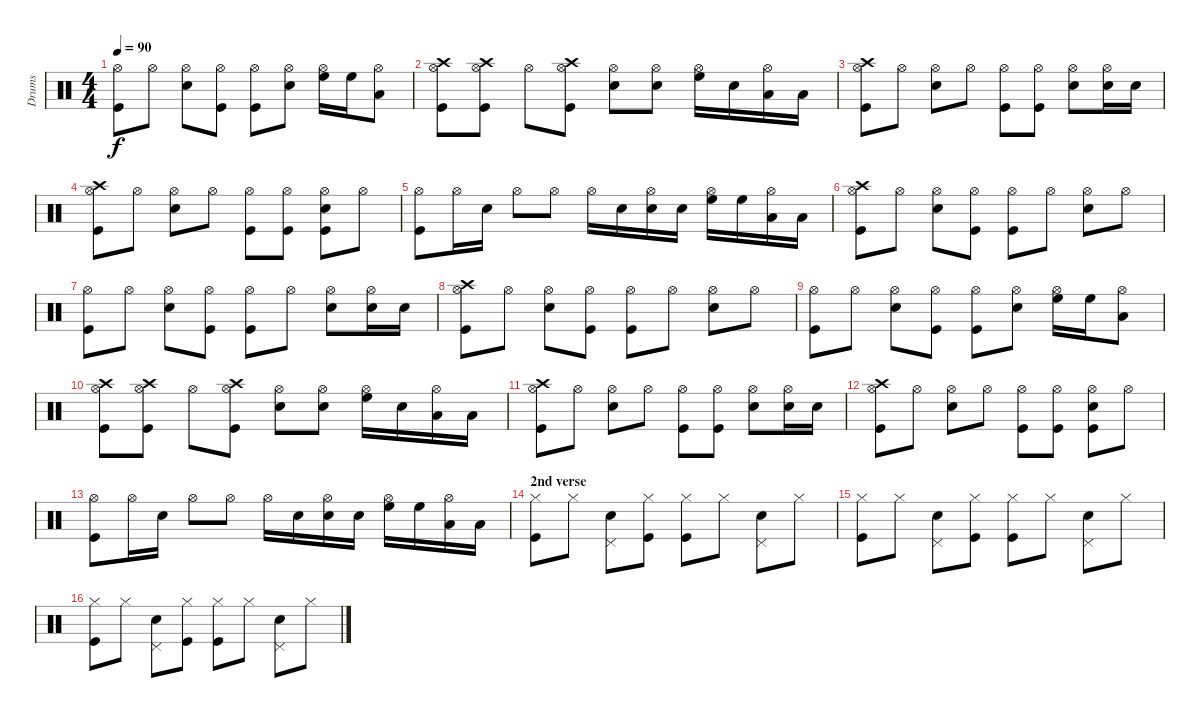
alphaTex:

\track ("Drums" "Drums") {instrument percussion}
\staff {score}
\articulation defaults
\ts (4 4)
\tempo 90
\clef neutral
\ks c
("Hi-Hat (open)" "Kick (hit)").8{dy f} "Hi-Hat (open)".8 ("Hi-Hat (open)" "Snare (hit) 2").8 ("Hi-Hat (open)" "Kick (hit)").8 ("Hi-Hat (open)" "Kick (hit)").8 ("Hi-Hat (open)" "Snare (hit) 2").8 ("Hi-Hat (open)" "High Floor Tom (hit)").16 "High Floor Tom (hit)".16 ("Hi-Hat (open)" "Low Tom (hit)").8 |
("Hi-Hat (open)" "Crash high (hit)" "Kick (hit)").8 ("Hi-Hat (open)" "Crash high (hit)" "Kick (hit)").8 "Hi-Hat (open)".8 ("Hi-Hat (open)" "Crash high (hit)" "Kick (hit)").8 ("Hi-Hat (open)" "Snare (hit) 2").8 ("Hi-Hat (open)" "Snare (hit) 2").8 ("Hi-Hat (open)" "High Floor Tom (hit)").16 "Snare (hit) 2".16 ("Hi-Hat (open)" "Low Tom (hit)").16 "Low Tom (hit)".16 |
("Hi-Hat (open)" "Crash high (hit)" "Kick (hit)").8 "Hi-Hat (open)".8 ("Hi-Hat (open)" "Snare (hit) 2").8 "Hi-Hat (open)".8 ("Hi-Hat (open)" "Kick (hit)").8 ("Hi-Hat (open)" "Kick (hit)").8 ("Hi-Hat (open)" "Snare (hit) 2").8 ("Hi-Hat (open)" "Snare (hit) 2").16 "Snare (hit) 2".16 |
("Hi-Hat (open)" "Crash high (hit)" "Kick (hit)").8 "Hi-Hat (open)".8 ("Hi-Hat (open)" "Snare (hit) 2").8 "Hi-Hat (open)".8 ("Hi-Hat (open)" "Kick (hit)").8 ("Hi-Hat (open)" "Kick (hit)").8 ("Hi-Hat (open)" "Snare (hit) 2" "Kick (hit)").8 "Hi-Hat (open)".8 |
("Hi-Hat (open)" "Kick (hit)").8 "Hi-Hat (open)".16 "Snare (hit) 2".16 "Hi-Hat (open)".8 "Hi-Hat (open)".8 "Hi-Hat (open)".16 "Snare (hit) 2".16 ("Hi-Hat (open)" "Snare (hit) 2").16 "Snare (hit) 2".16 ("Hi-Hat (open)" "High Floor Tom (hit)").16 "High Floor Tom (hit)".16 ("Hi-Hat (open)" "Low Tom (hit)").16 "Low Tom (hit)".16 |
("Hi-Hat (open)" "Crash high (hit)" "Kick (hit)").8 "Hi-Hat (open)".8 ("Hi-Hat (open)" "Snare (hit) 2").8 ("Hi-Hat (open)" "Kick (hit)").8 ("Hi-Hat (open)" "Kick (hit)").8 "Hi-Hat (open)".8 ("Hi-Hat (open)" "Snare (hit) 2").8 "Hi-Hat (open)".8 |
("Hi-Hat (open)" "Kick (hit)").8 "Hi-Hat (open)".8 ("Hi-Hat (open)" "Snare (hit) 2").8 ("Hi-Hat (open)" "Kick (hit)").8 ("Hi-Hat (open)" "Kick (hit)").8 "Hi-Hat (open)".8 ("Hi-Hat (open)" "Snare (hit) 2").8 ("Hi-Hat (open)" "Snare (hit) 2").16 "Snare (hit) 2".16 |
("Hi-Hat (open)" "Crash high (hit)" "Kick (hit)").8 "Hi-Hat (open)".8 ("Hi-Hat (open)" "Snare (hit) 2").8 ("Hi-Hat (open)" "Kick (hit)").8 ("Hi-Hat (open)" "Kick (hit)").8 "Hi-Hat (open)".8 ("Hi-Hat (open)" "Snare (hit) 2").8 "Hi-Hat (open)".8 |
("Hi-Hat (open)" "Kick (hit)").8 "Hi-Hat (open)".8 ("Hi-Hat (open)" "Snare (hit) 2").8 ("Hi-Hat (open)" "Kick (hit)").8 ("Hi-Hat (open)" "Kick (hit)").8 ("Hi-Hat (open)" "Snare (hit) 2").8 ("Hi-Hat (open)" "High Floor Tom (hit)").16 "High Floor Tom (hit)".16 ("Hi-Hat (open)" "Low Tom (hit)").8 |
("Hi-Hat (open)" "Crash high (hit)" "Kick (hit)").8 ("Hi-Hat (open)" "Crash high (hit)" "Kick (hit)").8 "Hi-Hat (open)".8 ("Hi-Hat (open)" "Crash high (hit)" "Kick (hit)").8 ("Hi-Hat (open)" "Snare (hit) 2").8 ("Hi-Hat (open)" "Snare (hit) 2").8 ("Hi-Hat (open)" "High Floor Tom (hit)").16 "Snare (hit) 2".16 ("Hi-Hat (open)" "Low Tom (hit)").16 "Low Tom (hit)".16 |
("Hi-Hat (open)" "Crash high (hit)" "Kick (hit)").8 "Hi-Hat (open)".8 ("Hi-Hat (open)" "Snare (hit) 2").8 "Hi-Hat (open)".8 ("Hi-Hat (open)" "Kick (hit)").8 ("Hi-Hat (open)" "Kick (hit)").8 ("Hi-Hat (open)" "Snare (hit) 2").8 ("Hi-Hat (open)" "Snare (hit) 2").16 "Snare (hit) 2".16 |
("Hi-Hat (open)" "Crash high (hit)" "Kick (hit)").8 "Hi-Hat (open)".8 ("Hi-Hat (open)" "Snare (hit) 2").8 "Hi-Hat (open)".8 ("Hi-Hat (open)" "Kick (hit)").8 ("Hi-Hat (open)" "Kick (hit)").8 ("Hi-Hat (open)" "Snare (hit) 2" "Kick (hit)").8 "Hi-Hat (open)".8 |
("Hi-Hat (open)" "Kick (hit)").8 "Hi-Hat (open)".16 "Snare (hit) 2".16 "Hi-Hat (open)".8 "Hi-Hat (open)".8 "Hi-Hat (open)".16 "Snare (hit) 2".16 ("Hi-Hat (open)" "Snare (hit) 2").16 "Snare (hit) 2".16 ("Hi-Hat (open)" "High Floor Tom (hit)").16 "High Floor Tom (hit)".16 ("Hi-Hat (open)" "Low Tom (hit)").16 "Low Tom (hit)".16 |
\section ("" "2nd verse")
("Hi-Hat (closed)" "Kick (hit)").8 "Hi-Hat (closed)".8 ("Pedal Hi-Hat (hit)" "Snare (hit) 2").8 ("Hi-Hat (closed)" "Kick (hit)").8 ("Hi-Hat (closed)" "Kick (hit)").8 "Hi-Hat (closed)".8 ("Pedal Hi-Hat (hit)" "Snare (hit) 2").8 "Hi-Hat (closed)".8 |
("Hi-Hat (closed)" "Kick (hit)").8 "Hi-Hat (closed)".8 ("Pedal Hi-Hat (hit)" "Snare (hit) 2").8 ("Hi-Hat (closed)" "Kick (hit)").8 ("Hi-Hat (closed)" "Kick (hit)").8 "Hi-Hat (closed)".8 ("Pedal Hi-Hat (hit)" "Snare (hit) 2").8 "Hi-Hat (closed)".8 |
("Hi-Hat (closed)" "Kick (hit)").8 "Hi-Hat (closed)".8 ("Pedal Hi-Hat (hit)" "Snare (hit) 2").8 ("Hi-Hat (closed)" "Kick (hit)").8 ("Hi-Hat (closed)" "Kick (hit)").8 "Hi-Hat (closed)".8 ("Pedal Hi-Hat (hit)" "Snare (hit) 2").8 "Hi-Hat (closed)".8
